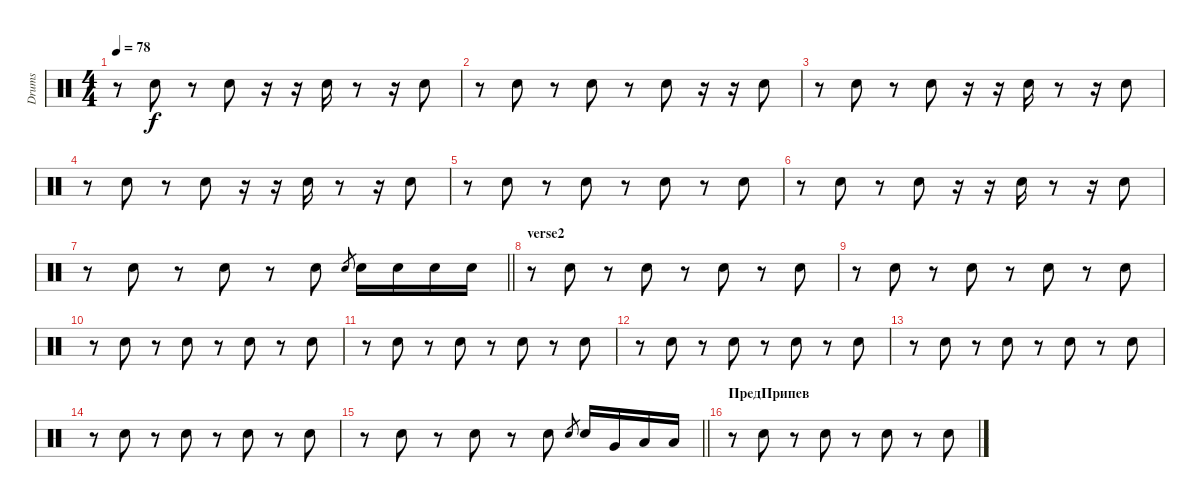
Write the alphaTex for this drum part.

\track ("Drums" "Drums") {instrument percussion}
\staff {score}
\articulation defaults
\ts (4 4)
\tempo 78
\clef neutral
\ks c
r.8{dy f} "Snare (hit) 2".8 r.8 "Snare (hit) 2".8 r.16 r.16 "Snare (hit) 2".16 r.8 r.16 "Snare (hit) 2".8 |
r.8 "Snare (hit) 2".8 r.8 "Snare (hit) 2".8 r.8 "Snare (hit) 2".8 r.16 r.16 "Snare (hit) 2".8 |
r.8 "Snare (hit) 2".8 r.8 "Snare (hit) 2".8 r.16 r.16 "Snare (hit) 2".16 r.8 r.16 "Snare (hit) 2".8 |
r.8 "Snare (hit) 2".8 r.8 "Snare (hit) 2".8 r.16 r.16 "Snare (hit) 2".16 r.8 r.16 "Snare (hit) 2".8 |
r.8 "Snare (hit) 2".8 r.8 "Snare (hit) 2".8 r.8 "Snare (hit) 2".8 r.8 "Snare (hit) 2".8 |
r.8 "Snare (hit) 2".8 r.8 "Snare (hit) 2".8 r.16 r.16 "Snare (hit) 2".16 r.8 r.16 "Snare (hit) 2".8 |
\barLineRight lightlight
r.8 "Snare (hit) 2".8 r.8 "Snare (hit) 2".8 r.8 "Snare (hit) 2".8 "Snare (hit) 2".8{gr} "Snare (hit) 2".16 "Snare (hit) 2".16 "Snare (hit) 2".16 "Snare (hit) 2".16 |
\section ("" "verse2")
r.8 "Snare (hit) 2".8 r.8 "Snare (hit) 2".8 r.8 "Snare (hit) 2".8 r.8 "Snare (hit) 2".8 |
r.8 "Snare (hit) 2".8 r.8 "Snare (hit) 2".8 r.8 "Snare (hit) 2".8 r.8 "Snare (hit) 2".8 |
r.8 "Snare (hit) 2".8 r.8 "Snare (hit) 2".8 r.8 "Snare (hit) 2".8 r.8 "Snare (hit) 2".8 |
r.8 "Snare (hit) 2".8 r.8 "Snare (hit) 2".8 r.8 "Snare (hit) 2".8 r.8 "Snare (hit) 2".8 |
r.8 "Snare (hit) 2".8 r.8 "Snare (hit) 2".8 r.8 "Snare (hit) 2".8 r.8 "Snare (hit) 2".8 |
r.8 "Snare (hit) 2".8 r.8 "Snare (hit) 2".8 r.8 "Snare (hit) 2".8 r.8 "Snare (hit) 2".8 |
r.8 "Snare (hit) 2".8 r.8 "Snare (hit) 2".8 r.8 "Snare (hit) 2".8 r.8 "Snare (hit) 2".8 |
\barLineRight lightlight
r.8 "Snare (hit) 2".8 r.8 "Snare (hit) 2".8 r.8 "Snare (hit) 2".8 "Snare (hit) 2".8{gr} "Snare (hit) 2".16 "Very Low Tom (hit)".16 "Low Tom (hit)".16 "Low Tom (hit)".16 |
\section ("" "ПредПрипев")
r.8 "Snare (hit) 2".8 r.8 "Snare (hit) 2".8 r.8 "Snare (hit) 2".8 r.8 "Snare (hit) 2".8
